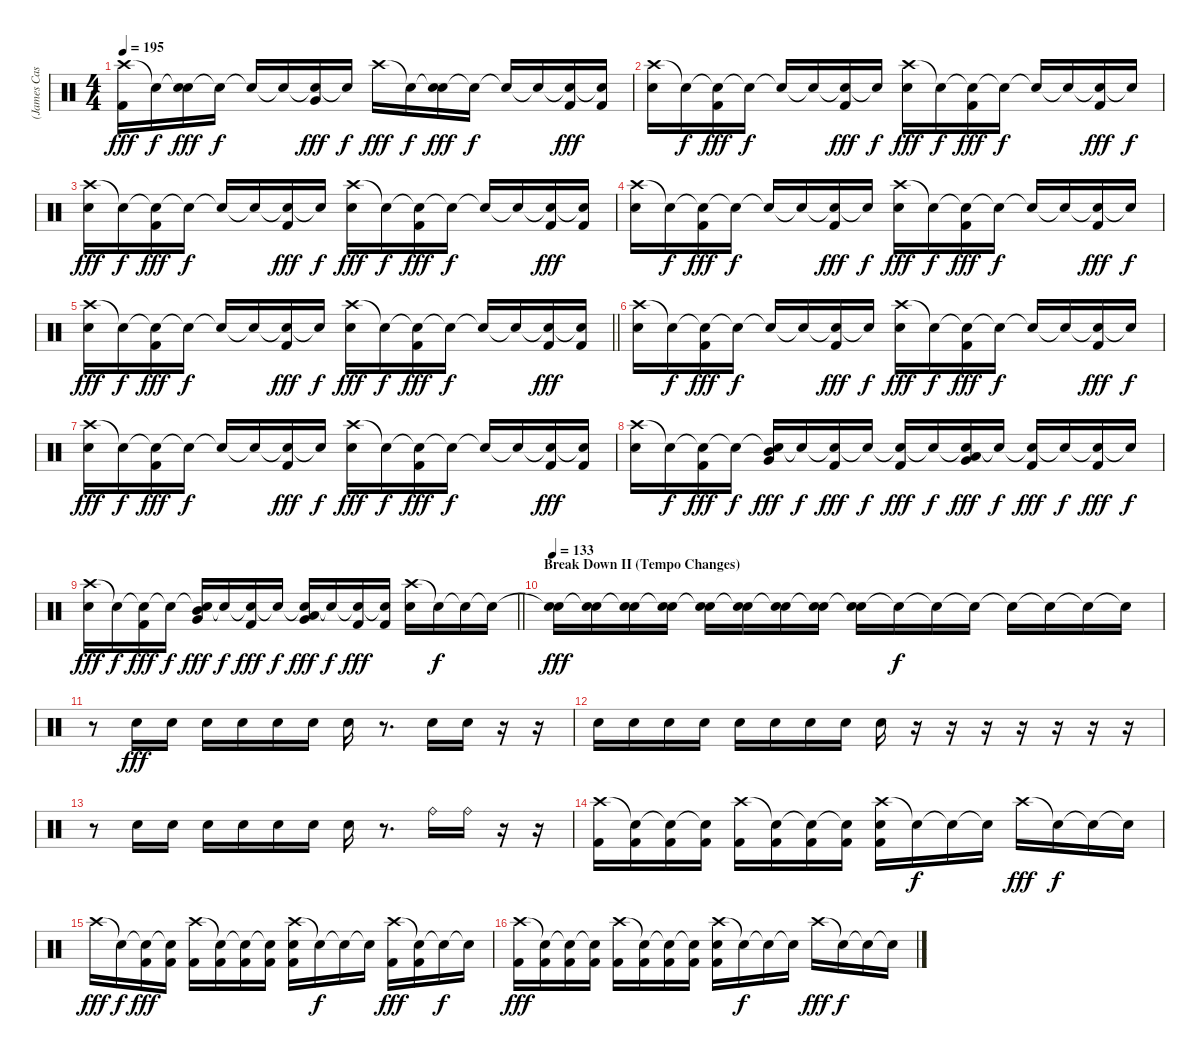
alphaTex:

\track ("(James Cassells) Drums" "(James Cas") {instrument percussion}
\staff {score}
\articulation defaults
\ts (4 4)
\tempo 195
\clef neutral
\ks c
("Crash high (hit)" "Kick (hit) 2").16{dy fff} "Snare (hit)"{t}.16{dy f} ("Snare (hit)"{t} "Electric Snare (hit)").16{dy fff} "Snare (hit)"{t}.16{dy f} "Snare (hit)"{t}.16 "Snare (hit)"{t}.16 ("Snare (hit)"{t} "Very Low Tom (hit)").16{dy fff} "Snare (hit)"{t}.16{dy f} "Crash high (hit)".16{dy fff} "Snare (hit)"{t}.16{dy f} ("Snare (hit)"{t} "Electric Snare (hit)").16{dy fff} "Snare (hit)"{t}.16{dy f} "Snare (hit)"{t}.16 "Snare (hit)"{t}.16 ("Snare (hit)"{t} "Kick (hit) 2").16{dy fff} ("Snare (hit)"{t} "Kick (hit) 2").16 |
("Crash high (hit)" "Electric Snare (hit)").16 "Snare (hit)"{t}.16{dy f} ("Snare (hit)"{t} "Kick (hit) 2").16{dy fff} "Snare (hit)"{t}.16{dy f} "Snare (hit)"{t}.16 "Snare (hit)"{t}.16 ("Snare (hit)"{t} "Kick (hit) 2").16{dy fff} "Snare (hit)"{t}.16{dy f} ("Crash high (hit)" "Electric Snare (hit)").16{dy fff} "Snare (hit)"{t}.16{dy f} ("Snare (hit)"{t} "Kick (hit) 2").16{dy fff} "Snare (hit)"{t}.16{dy f} "Snare (hit)"{t}.16 "Snare (hit)"{t}.16 ("Snare (hit)"{t} "Kick (hit) 2").16{dy fff} "Snare (hit)"{t}.16{dy f} |
("Crash high (hit)" "Electric Snare (hit)").16{dy fff} "Snare (hit)"{t}.16{dy f} ("Snare (hit)"{t} "Kick (hit) 2").16{dy fff} "Snare (hit)"{t}.16{dy f} "Snare (hit)"{t}.16 "Snare (hit)"{t}.16 ("Snare (hit)"{t} "Kick (hit) 2").16{dy fff} "Snare (hit)"{t}.16{dy f} ("Crash high (hit)" "Electric Snare (hit)").16{dy fff} "Snare (hit)"{t}.16{dy f} ("Snare (hit)"{t} "Kick (hit) 2").16{dy fff} "Snare (hit)"{t}.16{dy f} "Snare (hit)"{t}.16 "Snare (hit)"{t}.16 ("Snare (hit)"{t} "Kick (hit) 2").16{dy fff} ("Snare (hit)"{t} "Kick (hit) 2").16 |
("Crash high (hit)" "Electric Snare (hit)").16 "Snare (hit)"{t}.16{dy f} ("Snare (hit)"{t} "Kick (hit) 2").16{dy fff} "Snare (hit)"{t}.16{dy f} "Snare (hit)"{t}.16 "Snare (hit)"{t}.16 ("Snare (hit)"{t} "Kick (hit) 2").16{dy fff} "Snare (hit)"{t}.16{dy f} ("Crash high (hit)" "Electric Snare (hit)").16{dy fff} "Snare (hit)"{t}.16{dy f} ("Snare (hit)"{t} "Kick (hit) 2").16{dy fff} "Snare (hit)"{t}.16{dy f} "Snare (hit)"{t}.16 "Snare (hit)"{t}.16 ("Snare (hit)"{t} "Kick (hit) 2").16{dy fff} "Snare (hit)"{t}.16{dy f} |
\barLineRight lightlight
("Crash high (hit)" "Electric Snare (hit)").16{dy fff} "Snare (hit)"{t}.16{dy f} ("Snare (hit)"{t} "Kick (hit) 2").16{dy fff} "Snare (hit)"{t}.16{dy f} "Snare (hit)"{t}.16 "Snare (hit)"{t}.16 ("Snare (hit)"{t} "Kick (hit) 2").16{dy fff} "Snare (hit)"{t}.16{dy f} ("Crash high (hit)" "Electric Snare (hit)").16{dy fff} "Snare (hit)"{t}.16{dy f} ("Snare (hit)"{t} "Kick (hit) 2").16{dy fff} "Snare (hit)"{t}.16{dy f} "Snare (hit)"{t}.16 "Snare (hit)"{t}.16 ("Snare (hit)"{t} "Kick (hit) 2").16{dy fff} ("Snare (hit)"{t} "Kick (hit) 2").16 |
("Crash high (hit)" "Electric Snare (hit)").16 "Snare (hit)"{t}.16{dy f} ("Snare (hit)"{t} "Kick (hit) 2").16{dy fff} "Snare (hit)"{t}.16{dy f} "Snare (hit)"{t}.16 "Snare (hit)"{t}.16 ("Snare (hit)"{t} "Kick (hit) 2").16{dy fff} "Snare (hit)"{t}.16{dy f} ("Crash high (hit)" "Electric Snare (hit)").16{dy fff} "Snare (hit)"{t}.16{dy f} ("Snare (hit)"{t} "Kick (hit) 2").16{dy fff} "Snare (hit)"{t}.16{dy f} "Snare (hit)"{t}.16 "Snare (hit)"{t}.16 ("Snare (hit)"{t} "Kick (hit) 2").16{dy fff} "Snare (hit)"{t}.16{dy f} |
("Crash high (hit)" "Electric Snare (hit)").16{dy fff} "Snare (hit)"{t}.16{dy f} ("Snare (hit)"{t} "Kick (hit) 2").16{dy fff} "Snare (hit)"{t}.16{dy f} "Snare (hit)"{t}.16 "Snare (hit)"{t}.16 ("Snare (hit)"{t} "Kick (hit) 2").16{dy fff} "Snare (hit)"{t}.16{dy f} ("Crash high (hit)" "Electric Snare (hit)").16{dy fff} "Snare (hit)"{t}.16{dy f} ("Snare (hit)"{t} "Kick (hit) 2").16{dy fff} "Snare (hit)"{t}.16{dy f} "Snare (hit)"{t}.16 "Snare (hit)"{t}.16 ("Snare (hit)"{t} "Kick (hit) 2").16{dy fff} ("Snare (hit)"{t} "Kick (hit) 2").16 |
("Crash high (hit)" "Electric Snare (hit)").16 "Snare (hit)"{t}.16{dy f} ("Snare (hit)"{t} "Kick (hit) 2").16{dy fff} "Snare (hit)"{t}.16{dy f} ("Snare (hit)"{t} "Mid Tom (hit)" "Very Low Tom (hit)").16{dy fff} "Snare (hit)"{t}.16{dy f} ("Snare (hit)"{t} "Kick (hit) 2").16{dy fff} "Snare (hit)"{t}.16{dy f} ("Snare (hit)"{t} "Kick (hit) 2").16{dy fff} "Snare (hit)"{t}.16{dy f} ("Snare (hit)"{t} "Very Low Tom (hit)" "Low Floor Tom (hit)").16{dy fff} "Snare (hit)"{t}.16{dy f} ("Snare (hit)"{t} "Kick (hit) 2").16{dy fff} "Snare (hit)"{t}.16{dy f} ("Snare (hit)"{t} "Kick (hit) 2").16{dy fff} "Snare (hit)"{t}.16{dy f} |
\barLineRight lightlight
("Crash high (hit)" "Electric Snare (hit)").16{dy fff} "Snare (hit)"{t}.16{dy f} ("Snare (hit)"{t} "Kick (hit) 2").16{dy fff} "Snare (hit)"{t}.16{dy f} ("Snare (hit)"{t} "Mid Tom (hit)" "Very Low Tom (hit)").16{dy fff} "Snare (hit)"{t}.16{dy f} ("Snare (hit)"{t} "Kick (hit) 2").16{dy fff} "Snare (hit)"{t}.16{dy f} ("Snare (hit)"{t} "Very Low Tom (hit)" "Low Floor Tom (hit)").16{dy fff} "Snare (hit)"{t}.16{dy f} ("Snare (hit)"{t} "Kick (hit) 2").16{dy fff} ("Snare (hit)"{t} "Kick (hit) 2").16 ("Crash high (hit)" "Electric Snare (hit)").16 "Snare (hit)"{t}.16{dy f} "Snare (hit)"{t}.16 "Snare (hit)"{t}.16 |
\section ("" "Break Down II (Tempo Changes)")
\tempo 133
("Snare (hit)"{t} "Electric Snare (hit)").16{dy fff} ("Snare (hit)"{t} "Electric Snare (hit)").16 ("Snare (hit)"{t} "Electric Snare (hit)").16 ("Snare (hit)"{t} "Electric Snare (hit)").16 ("Snare (hit)"{t} "Electric Snare (hit)").16 ("Snare (hit)"{t} "Electric Snare (hit)").16 ("Snare (hit)"{t} "Electric Snare (hit)").16 ("Snare (hit)"{t} "Electric Snare (hit)").16 ("Snare (hit)"{t} "Electric Snare (hit)").16 "Snare (hit)"{t}.16{dy f} "Snare (hit)"{t}.16 "Snare (hit)"{t}.16 "Snare (hit)"{t}.16 "Snare (hit)"{t}.16 "Snare (hit)"{t}.16 "Snare (hit)"{t}.16 |
r.8 "Electric Snare (hit)".16{dy fff} "Electric Snare (hit)".16 "Electric Snare (hit)".16 "Electric Snare (hit)".16 "Electric Snare (hit)".16 "Electric Snare (hit)".16 "Electric Snare (hit)".16 r.8{d} "Electric Snare (hit)".16 "Electric Snare (hit)".16 r.16 r.16 |
"Electric Snare (hit)".16 "Electric Snare (hit)".16 "Electric Snare (hit)".16 "Electric Snare (hit)".16 "Electric Snare (hit)".16 "Electric Snare (hit)".16 "Electric Snare (hit)".16 "Electric Snare (hit)".16 "Electric Snare (hit)".16 r.16 r.16 r.16 r.16 r.16 r.16 r.16 |
r.8 "Electric Snare (hit)".16 "Electric Snare (hit)".16 "Electric Snare (hit)".16 "Electric Snare (hit)".16 "Electric Snare (hit)".16 "Electric Snare (hit)".16 "Electric Snare (hit)".16 r.8{d} "Ride (bell)".16 "Ride (bell)".16 r.16 r.16 |
("Crash high (hit)" "Kick (hit) 2").16 ("Snare (hit)"{t} "Kick (hit) 2").16 ("Snare (hit)"{t} "Kick (hit) 2").16 ("Snare (hit)"{t} "Kick (hit) 2").16 ("Crash high (hit)" "Kick (hit) 2").16 ("Snare (hit)"{t} "Kick (hit) 2").16 ("Snare (hit)"{t} "Kick (hit) 2").16 ("Snare (hit)"{t} "Kick (hit) 2").16 ("Crash high (hit)" "Electric Snare (hit)" "Kick (hit) 2").16 "Snare (hit)"{t}.16{dy f} "Snare (hit)"{t}.16 "Snare (hit)"{t}.16 "Crash high (hit)".16{dy fff} "Snare (hit)"{t}.16{dy f} "Snare (hit)"{t}.16 "Snare (hit)"{t}.16 |
"Crash high (hit)".16{dy fff} "Snare (hit)"{t}.16{dy f} ("Snare (hit)"{t} "Kick (hit) 2").16{dy fff} ("Snare (hit)"{t} "Kick (hit) 2").16 ("Crash high (hit)" "Kick (hit) 2").16 ("Snare (hit)"{t} "Kick (hit) 2").16 ("Snare (hit)"{t} "Kick (hit) 2").16 ("Snare (hit)"{t} "Kick (hit) 2").16 ("Crash high (hit)" "Electric Snare (hit)" "Kick (hit) 2").16 "Snare (hit)"{t}.16{dy f} "Snare (hit)"{t}.16 "Snare (hit)"{t}.16 ("Crash high (hit)" "Kick (hit) 2").16{dy fff} ("Snare (hit)"{t} "Kick (hit) 2").16 "Snare (hit)"{t}.16{dy f} "Snare (hit)"{t}.16 |
("Crash high (hit)" "Kick (hit) 2").16{dy fff} ("Snare (hit)"{t} "Kick (hit) 2").16 ("Snare (hit)"{t} "Kick (hit) 2").16 ("Snare (hit)"{t} "Kick (hit) 2").16 ("Crash high (hit)" "Kick (hit) 2").16 ("Snare (hit)"{t} "Kick (hit) 2").16 ("Snare (hit)"{t} "Kick (hit) 2").16 ("Snare (hit)"{t} "Kick (hit) 2").16 ("Crash high (hit)" "Electric Snare (hit)" "Kick (hit) 2").16 "Snare (hit)"{t}.16{dy f} "Snare (hit)"{t}.16 "Snare (hit)"{t}.16 "Crash high (hit)".16{dy fff} "Snare (hit)"{t}.16{dy f} "Snare (hit)"{t}.16 "Snare (hit)"{t}.16
